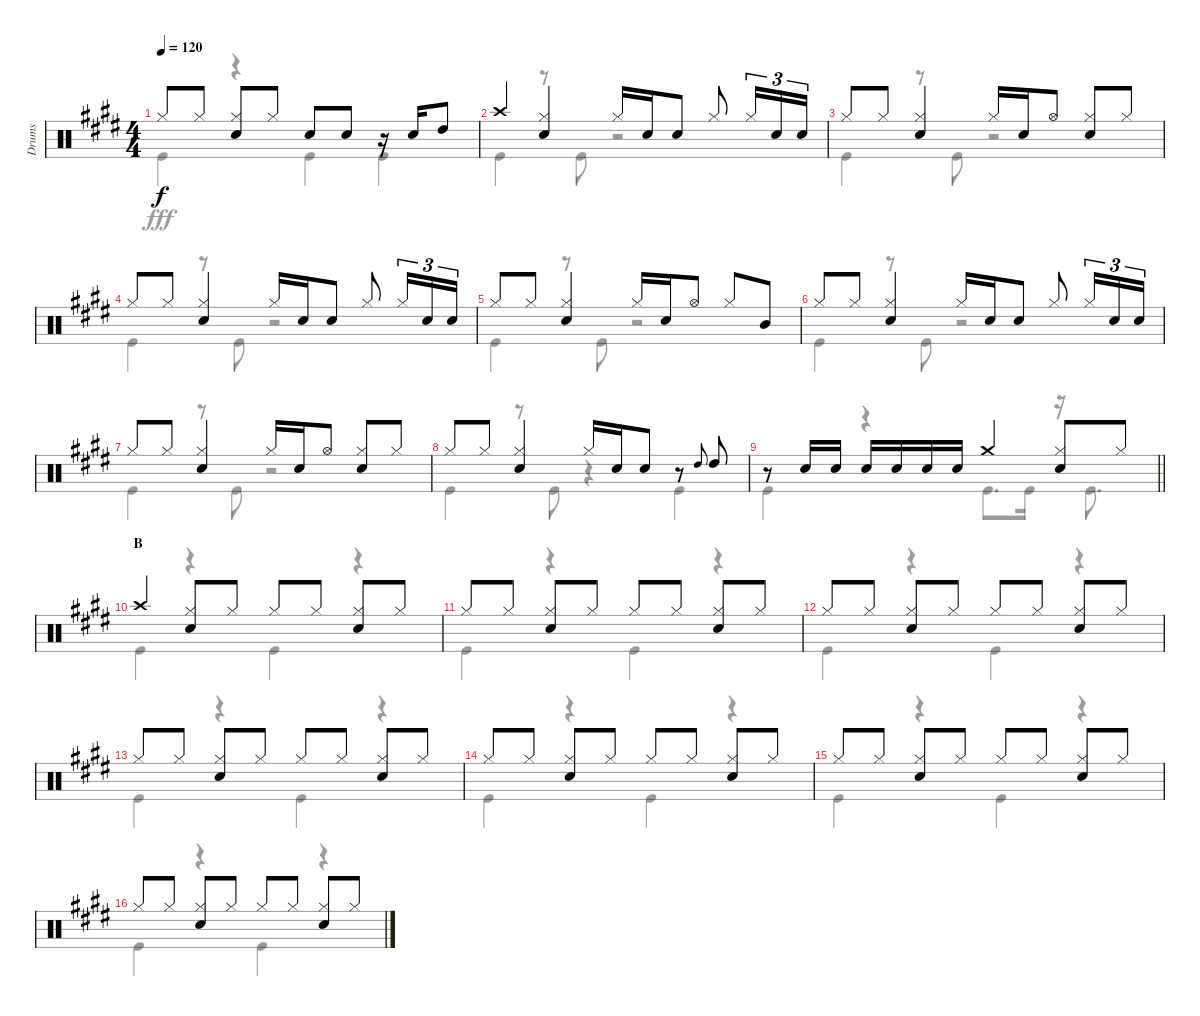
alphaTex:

\track ("Drums" "Drums") {instrument percussion}
\staff {score}
\articulation defaults
\voice
\ts (4 4)
\tempo 120
\clef neutral
\ks e "Hi-Hat (closed)".8{dy f} "Hi-Hat (closed)".8
("Hi-Hat (closed)" "Snare (hit) 2").8 "Hi-Hat (closed)".8 "Snare (hit) 2".8 "Snare (hit) 2".8 r.16 "Snare (hit) 2".16 "High Tom (hit)".8 |
"Crash high (hit)".4 ("Hi-Hat (closed)" "Snare (hit) 2").4 "Hi-Hat (closed)".16 "Snare (hit) 2".16 "Snare (hit) 2".8 "Hi-Hat (closed)".8 "Hi-Hat (closed)".16{tu (3 2)} "Snare (hit) 2".16{tu (3 2)} "Snare (hit) 2".16{tu (3 2)} |
"Hi-Hat (closed)".8 "Hi-Hat (closed)".8 ("Hi-Hat (closed)" "Snare (hit) 2").4 "Hi-Hat (closed)".16 "Snare (hit) 2".16 "Hi-Hat (open)".8 ("Hi-Hat (closed)" "Snare (hit) 2").8 "Hi-Hat (closed)".8 |
"Hi-Hat (closed)".8 "Hi-Hat (closed)".8 ("Hi-Hat (closed)" "Snare (hit) 2").4 "Hi-Hat (closed)".16 "Snare (hit) 2".16 "Snare (hit) 2".8 "Hi-Hat (closed)".8 "Hi-Hat (closed)".16{tu (3 2)} "Snare (hit) 2".16{tu (3 2)} "Snare (hit) 2".16{tu (3 2)} |
"Hi-Hat (closed)".8 "Hi-Hat (closed)".8 ("Hi-Hat (closed)" "Snare (hit) 2").4 "Hi-Hat (closed)".16 "Snare (hit) 2".16 "Hi-Hat (open)".8 "Hi-Hat (closed)".8 "Mid Tom (hit)".8 |
"Hi-Hat (closed)".8 "Hi-Hat (closed)".8 ("Hi-Hat (closed)" "Snare (hit) 2").4 "Hi-Hat (closed)".16 "Snare (hit) 2".16 "Snare (hit) 2".8 "Hi-Hat (closed)".8 "Hi-Hat (closed)".16{tu (3 2)} "Snare (hit) 2".16{tu (3 2)} "Snare (hit) 2".16{tu (3 2)} |
"Hi-Hat (closed)".8 "Hi-Hat (closed)".8 ("Hi-Hat (closed)" "Snare (hit) 2").4 "Hi-Hat (closed)".16 "Snare (hit) 2".16 "Hi-Hat (open)".8 ("Hi-Hat (closed)" "Snare (hit) 2").8 "Hi-Hat (closed)".8 |
"Hi-Hat (closed)".8 "Hi-Hat (closed)".8 ("Hi-Hat (closed)" "Snare (hit) 2").4 "Hi-Hat (closed)".16 "Snare (hit) 2".16 "Snare (hit) 2".8 r.8 "High Tom (hit)".8{gr onbeat} "High Tom (hit)".8 |
\barLineRight lightlight
r.8 "Snare (hit) 2".16 "Snare (hit) 2".16 "Snare (hit) 2".16 "Snare (hit) 2".16 "Snare (hit) 2".16 "Snare (hit) 2".16 "Crash medium (hit)".4 ("Hi-Hat (closed)" "Snare (hit) 2").8 "Hi-Hat (closed)".8 |
\section ("" "B")
"Crash high (hit)".4 ("Hi-Hat (closed)" "Snare (hit) 2").8 "Hi-Hat (closed)".8 "Hi-Hat (closed)".8 "Hi-Hat (closed)".8 ("Hi-Hat (closed)" "Snare (hit) 2").8 "Hi-Hat (closed)".8 |
"Hi-Hat (closed)".8 "Hi-Hat (closed)".8 ("Hi-Hat (closed)" "Snare (hit) 2").8 "Hi-Hat (closed)".8 "Hi-Hat (closed)".8 "Hi-Hat (closed)".8 ("Hi-Hat (closed)" "Snare (hit) 2").8 "Hi-Hat (closed)".8 |
"Hi-Hat (closed)".8 "Hi-Hat (closed)".8 ("Hi-Hat (closed)" "Snare (hit) 2").8 "Hi-Hat (closed)".8 "Hi-Hat (closed)".8 "Hi-Hat (closed)".8 ("Hi-Hat (closed)" "Snare (hit) 2").8 "Hi-Hat (closed)".8 |
"Hi-Hat (closed)".8 "Hi-Hat (closed)".8 ("Hi-Hat (closed)" "Snare (hit) 2").8 "Hi-Hat (closed)".8 "Hi-Hat (closed)".8 "Hi-Hat (closed)".8 ("Hi-Hat (closed)" "Snare (hit) 2").8 "Hi-Hat (closed)".8 |
"Hi-Hat (closed)".8 "Hi-Hat (closed)".8 ("Hi-Hat (closed)" "Snare (hit) 2").8 "Hi-Hat (closed)".8 "Hi-Hat (closed)".8 "Hi-Hat (closed)".8 ("Hi-Hat (closed)" "Snare (hit) 2").8 "Hi-Hat (closed)".8 |
"Hi-Hat (closed)".8 "Hi-Hat (closed)".8 ("Hi-Hat (closed)" "Snare (hit) 2").8 "Hi-Hat (closed)".8 "Hi-Hat (closed)".8 "Hi-Hat (closed)".8 ("Hi-Hat (closed)" "Snare (hit) 2").8 "Hi-Hat (closed)".8 |
"Hi-Hat (closed)".8 "Hi-Hat (closed)".8 ("Hi-Hat (closed)" "Snare (hit) 2").8 "Hi-Hat (closed)".8 "Hi-Hat (closed)".8 "Hi-Hat (closed)".8 ("Hi-Hat (closed)" "Snare (hit) 2").8 "Hi-Hat (closed)".8
\voice
\clef neutral
\ottava regular
\simile none
\ks e "Kick (hit)".4{dy fff}
r.4 "Kick (hit)".4 "Kick (hit)".4 |
"Kick (hit)".4 r.8 "Kick (hit)".8 r.2 |
"Kick (hit)".4 r.8 "Kick (hit)".8 r.2 |
"Kick (hit)".4 r.8 "Kick (hit)".8 r.2 |
"Kick (hit)".4 r.8 "Kick (hit)".8 r.2 |
"Kick (hit)".4 r.8 "Kick (hit)".8 r.2 |
"Kick (hit)".4 r.8 "Kick (hit)".8 r.2 |
"Kick (hit)".4 r.8 "Kick (hit)".8 r.4 "Kick (hit)".4 |
\barLineRight lightlight "Kick (hit)".4
r.4 "Kick (hit)".8{d} "Kick (hit)".16 r.16 "Kick (hit)".8{d} |
"Kick (hit)".4 r.4 "Kick (hit)".4 r.4 |
"Kick (hit)".4 r.4 "Kick (hit)".4 r.4 |
"Kick (hit)".4 r.4 "Kick (hit)".4 r.4 |
"Kick (hit)".4 r.4 "Kick (hit)".4 r.4 |
"Kick (hit)".4 r.4 "Kick (hit)".4 r.4 |
"Kick (hit)".4 r.4 "Kick (hit)".4 r.4 |
"Kick (hit)".4 r.4 "Kick (hit)".4 r.4
